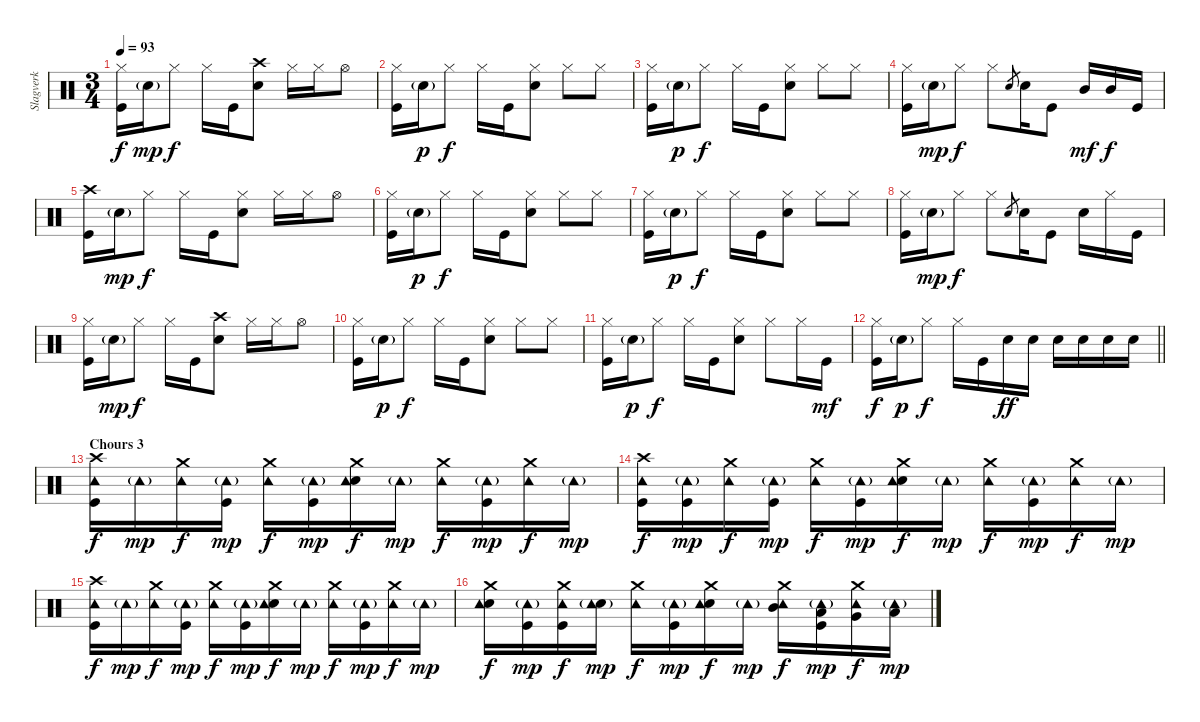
\track ("Slagverk" "Slagverk") {instrument percussion}
\staff {score}
\articulation defaults
\ts (3 4)
\tempo 93
\clef neutral
\ks c
("Hi-Hat (closed)" "Kick (hit)").16{dy f} "Electric Snare (hit)"{g}.16{dy mp} "Hi-Hat (closed)".8{dy f} "Hi-Hat (closed)".16 "Kick (hit)".16 ("Crash high (hit)" "Electric Snare (hit)").8 "Hi-Hat (closed)".16 "Hi-Hat (closed)".16 "Hi-Hat (open)".8 |
("Hi-Hat (closed)" "Kick (hit)").16 "Electric Snare (hit)"{g}.16{dy p} "Hi-Hat (closed)".8{dy f} "Hi-Hat (closed)".16 "Kick (hit)".16 ("Hi-Hat (closed)" "Electric Snare (hit)").8 "Hi-Hat (closed)".8 "Hi-Hat (closed)".8 |
("Hi-Hat (closed)" "Kick (hit)").16 "Electric Snare (hit)"{g}.16{dy p} "Hi-Hat (closed)".8{dy f} "Hi-Hat (closed)".16 "Kick (hit)".16 ("Hi-Hat (closed)" "Electric Snare (hit)").8 "Hi-Hat (closed)".8 "Hi-Hat (closed)".8 |
("Hi-Hat (closed)" "Kick (hit)").16 "Electric Snare (hit)"{g}.16{dy mp} "Hi-Hat (closed)".8{dy f} "Hi-Hat (closed)".8 "Electric Snare (hit)".8{gr} "Electric Snare (hit)".16 "Kick (hit)".8 "Mid Tom (hit)".16{dy mf} "Mid Tom (hit)".16{dy f} "Kick (hit)".16 |
("Crash high (hit)" "Kick (hit)").16 "Electric Snare (hit)"{g}.16{dy mp} "Hi-Hat (closed)".8{dy f} "Hi-Hat (closed)".16 "Kick (hit)".16 ("Hi-Hat (closed)" "Electric Snare (hit)").8 "Hi-Hat (closed)".16 "Hi-Hat (closed)".16 "Hi-Hat (open)".8 |
("Hi-Hat (closed)" "Kick (hit)").16 "Electric Snare (hit)"{g}.16{dy p} "Hi-Hat (closed)".8{dy f} "Hi-Hat (closed)".16 "Kick (hit)".16 ("Hi-Hat (closed)" "Electric Snare (hit)").8 "Hi-Hat (closed)".8 "Hi-Hat (closed)".8 |
("Hi-Hat (closed)" "Kick (hit)").16 "Electric Snare (hit)"{g}.16{dy p} "Hi-Hat (closed)".8{dy f} "Hi-Hat (closed)".16 "Kick (hit)".16 ("Hi-Hat (closed)" "Electric Snare (hit)").8 "Hi-Hat (closed)".8 "Hi-Hat (closed)".8 |
("Hi-Hat (closed)" "Kick (hit)").16 "Electric Snare (hit)"{g}.16{dy mp} "Hi-Hat (closed)".8{dy f} "Hi-Hat (closed)".8 "Electric Snare (hit)".8{gr} "Electric Snare (hit)".16 "Kick (hit)".8 "Electric Snare (hit)".16 "Hi-Hat (closed)".16 "Kick (hit)".16 |
("Hi-Hat (closed)" "Kick (hit)").16 "Electric Snare (hit)"{g}.16{dy mp} "Hi-Hat (closed)".8{dy f} "Hi-Hat (closed)".16 "Kick (hit)".16 ("Crash high (hit)" "Electric Snare (hit)").8 "Hi-Hat (closed)".16 "Hi-Hat (closed)".16 "Hi-Hat (open)".8 |
("Hi-Hat (closed)" "Kick (hit)").16 "Electric Snare (hit)"{g}.16{dy p} "Hi-Hat (closed)".8{dy f} "Hi-Hat (closed)".16 "Kick (hit)".16 ("Hi-Hat (closed)" "Electric Snare (hit)").8 "Hi-Hat (closed)".8 "Hi-Hat (closed)".8 |
("Hi-Hat (closed)" "Kick (hit)").16 "Electric Snare (hit)"{g}.16{dy p} "Hi-Hat (closed)".8{dy f} "Hi-Hat (closed)".16 "Kick (hit)".16 ("Hi-Hat (closed)" "Electric Snare (hit)").8 "Hi-Hat (closed)".8 "Hi-Hat (closed)".16 "Kick (hit)".16{dy mf} |
\barLineRight lightlight
("Hi-Hat (closed)" "Kick (hit)").16{dy f} "Electric Snare (hit)"{g}.16{dy p} "Hi-Hat (closed)".8{dy f} "Hi-Hat (closed)".16 "Kick (hit)".16 "Electric Snare (hit)".16{dy ff} "Electric Snare (hit)".16 "Electric Snare (hit)".16 "Electric Snare (hit)".16 "Electric Snare (hit)".16 "Electric Snare (hit)".16 |
\section ("" "Chours 3")
("Crash high (hit)" "Tambourine (hit)" "Kick (hit)").16{dy f} "Tambourine (hit)"{g}.16{dy mp} ("Crash medium (hit)" "Tambourine (hit)").16{dy f} ("Tambourine (hit)"{g} "Kick (hit)").16{dy mp} ("Crash medium (hit)" "Tambourine (hit)").16{dy f} ("Kick (hit)" "Tambourine (hit)"{g}).16{dy mp} ("Crash medium (hit)" "Electric Snare (hit)" "Tambourine (hit)").16{dy f} "Tambourine (hit)"{g}.16{dy mp} ("Crash medium (hit)" "Tambourine (hit)").16{dy f} ("Kick (hit)" "Tambourine (hit)"{g}).16{dy mp} ("Crash medium (hit)" "Tambourine (hit)").16{dy f} "Tambourine (hit)"{g}.16{dy mp} |
("Crash high (hit)" "Kick (hit)" "Tambourine (hit)").16{dy f} ("Kick (hit)" "Tambourine (hit)"{g}).16{dy mp} ("Crash medium (hit)" "Tambourine (hit)").16{dy f} ("Kick (hit)" "Tambourine (hit)"{g}).16{dy mp} ("Crash medium (hit)" "Tambourine (hit)").16{dy f} ("Kick (hit)" "Tambourine (hit)"{g}).16{dy mp} ("Crash medium (hit)" "Electric Snare (hit)" "Tambourine (hit)").16{dy f} "Tambourine (hit)"{g}.16{dy mp} ("Crash medium (hit)" "Tambourine (hit)").16{dy f} ("Kick (hit)" "Tambourine (hit)"{g}).16{dy mp} ("Crash medium (hit)" "Tambourine (hit)").16{dy f} "Tambourine (hit)"{g}.16{dy mp} |
("Crash high (hit)" "Kick (hit)" "Tambourine (hit)").16{dy f} "Tambourine (hit)"{g}.16{dy mp} ("Crash medium (hit)" "Tambourine (hit)").16{dy f} ("Kick (hit)" "Tambourine (hit)"{g}).16{dy mp} ("Crash medium (hit)" "Tambourine (hit)").16{dy f} ("Kick (hit)" "Tambourine (hit)"{g}).16{dy mp} ("Crash medium (hit)" "Electric Snare (hit)" "Tambourine (hit)").16{dy f} "Tambourine (hit)"{g}.16{dy mp} ("Crash medium (hit)" "Tambourine (hit)").16{dy f} ("Kick (hit)" "Tambourine (hit)"{g}).16{dy mp} ("Crash medium (hit)" "Tambourine (hit)").16{dy f} "Tambourine (hit)"{g}.16{dy mp} |
("Crash medium (hit)" "Electric Snare (hit)" "Tambourine (hit)").16{dy f} ("Kick (hit)" "Tambourine (hit)"{g}).16{dy mp} ("Crash medium (hit)" "Kick (hit)" "Tambourine (hit)").16{dy f} ("Electric Snare (hit)" "Tambourine (hit)"{g}).16{dy mp} ("Crash medium (hit)" "Tambourine (hit)").16{dy f} ("Kick (hit)" "Tambourine (hit)"{g}).16{dy mp} ("Crash medium (hit)" "Electric Snare (hit)" "Tambourine (hit)").16{dy f} "Tambourine (hit)"{g}.16{dy mp} ("Crash medium (hit)" "Mid Tom (hit)" "Tambourine (hit)").16{dy f} ("Kick (hit)" "Low Tom (hit)" "Tambourine (hit)"{g}).16{dy mp} ("Crash medium (hit)" "Very Low Tom (hit)" "Tambourine (hit)").16{dy f} ("Low Floor Tom (hit)" "Tambourine (hit)"{g}).16{dy mp}
